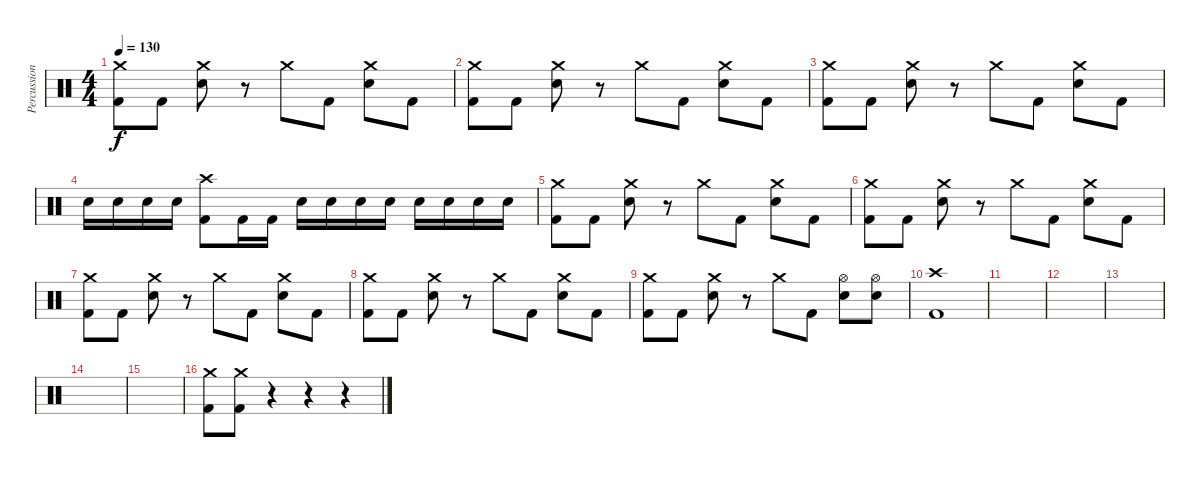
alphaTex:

\track ("Percussion" "Percussion") {instrument percussion}
\staff {score}
\articulation defaults
\ts (4 4)
\tempo 130
\clef neutral
\ks c
("Crash medium (hit)" "Kick (hit) 2").8{dy f} "Kick (hit) 2".8 ("Crash medium (hit)" "Electric Snare (hit)").8 r.8 "Crash medium (hit)".8 "Kick (hit) 2".8 ("Crash medium (hit)" "Electric Snare (hit)").8 "Kick (hit) 2".8 |
("Crash medium (hit)" "Kick (hit) 2").8 "Kick (hit) 2".8 ("Crash medium (hit)" "Electric Snare (hit)").8 r.8 "Crash medium (hit)".8 "Kick (hit) 2".8 ("Crash medium (hit)" "Electric Snare (hit)").8 "Kick (hit) 2".8 |
("Crash medium (hit)" "Kick (hit) 2").8 "Kick (hit) 2".8 ("Crash medium (hit)" "Electric Snare (hit)").8 r.8 "Crash medium (hit)".8 "Kick (hit) 2".8 ("Crash medium (hit)" "Electric Snare (hit)").8 "Kick (hit) 2".8 |
"Electric Snare (hit)".16 "Electric Snare (hit)".16 "Electric Snare (hit)".16 "Electric Snare (hit)".16 ("Crash high (hit)" "Kick (hit) 2").8 "Kick (hit) 2".16 "Kick (hit) 2".16 "Electric Snare (hit)".16 "Electric Snare (hit)".16 "Electric Snare (hit)".16 "Electric Snare (hit)".16 "Electric Snare (hit)".16 "Electric Snare (hit)".16 "Electric Snare (hit)".16 "Electric Snare (hit)".16 |
("Crash medium (hit)" "Kick (hit) 2").8 "Kick (hit) 2".8 ("Crash medium (hit)" "Electric Snare (hit)").8 r.8 "Crash medium (hit)".8 "Kick (hit) 2".8 ("Crash medium (hit)" "Electric Snare (hit)").8 "Kick (hit) 2".8 |
("Crash medium (hit)" "Kick (hit) 2").8 "Kick (hit) 2".8 ("Crash medium (hit)" "Electric Snare (hit)").8 r.8 "Crash medium (hit)".8 "Kick (hit) 2".8 ("Crash medium (hit)" "Electric Snare (hit)").8 "Kick (hit) 2".8 |
("Crash medium (hit)" "Kick (hit) 2").8 "Kick (hit) 2".8 ("Crash medium (hit)" "Electric Snare (hit)").8 r.8 "Crash medium (hit)".8 "Kick (hit) 2".8 ("Crash medium (hit)" "Electric Snare (hit)").8 "Kick (hit) 2".8 |
("Crash medium (hit)" "Kick (hit) 2").8 "Kick (hit) 2".8 ("Crash medium (hit)" "Electric Snare (hit)").8 r.8 "Crash medium (hit)".8 "Kick (hit) 2".8 ("Crash medium (hit)" "Electric Snare (hit)").8 "Kick (hit) 2".8 |
("Crash medium (hit)" "Kick (hit) 2").8 "Kick (hit) 2".8 ("Crash medium (hit)" "Electric Snare (hit)").8 r.8 "Crash medium (hit)".8 "Kick (hit) 2".8 ("Hi-Hat (open)" "Electric Snare (hit)").8 ("Hi-Hat (open)" "Electric Snare (hit)").8 |
("Crash high (hit)" "Kick (hit) 2").1 |
|
|
|
|
|
("Crash medium (hit)" "Kick (hit) 2").8 ("Crash medium (hit)" "Kick (hit) 2").8 r.4 r.4 r.4
